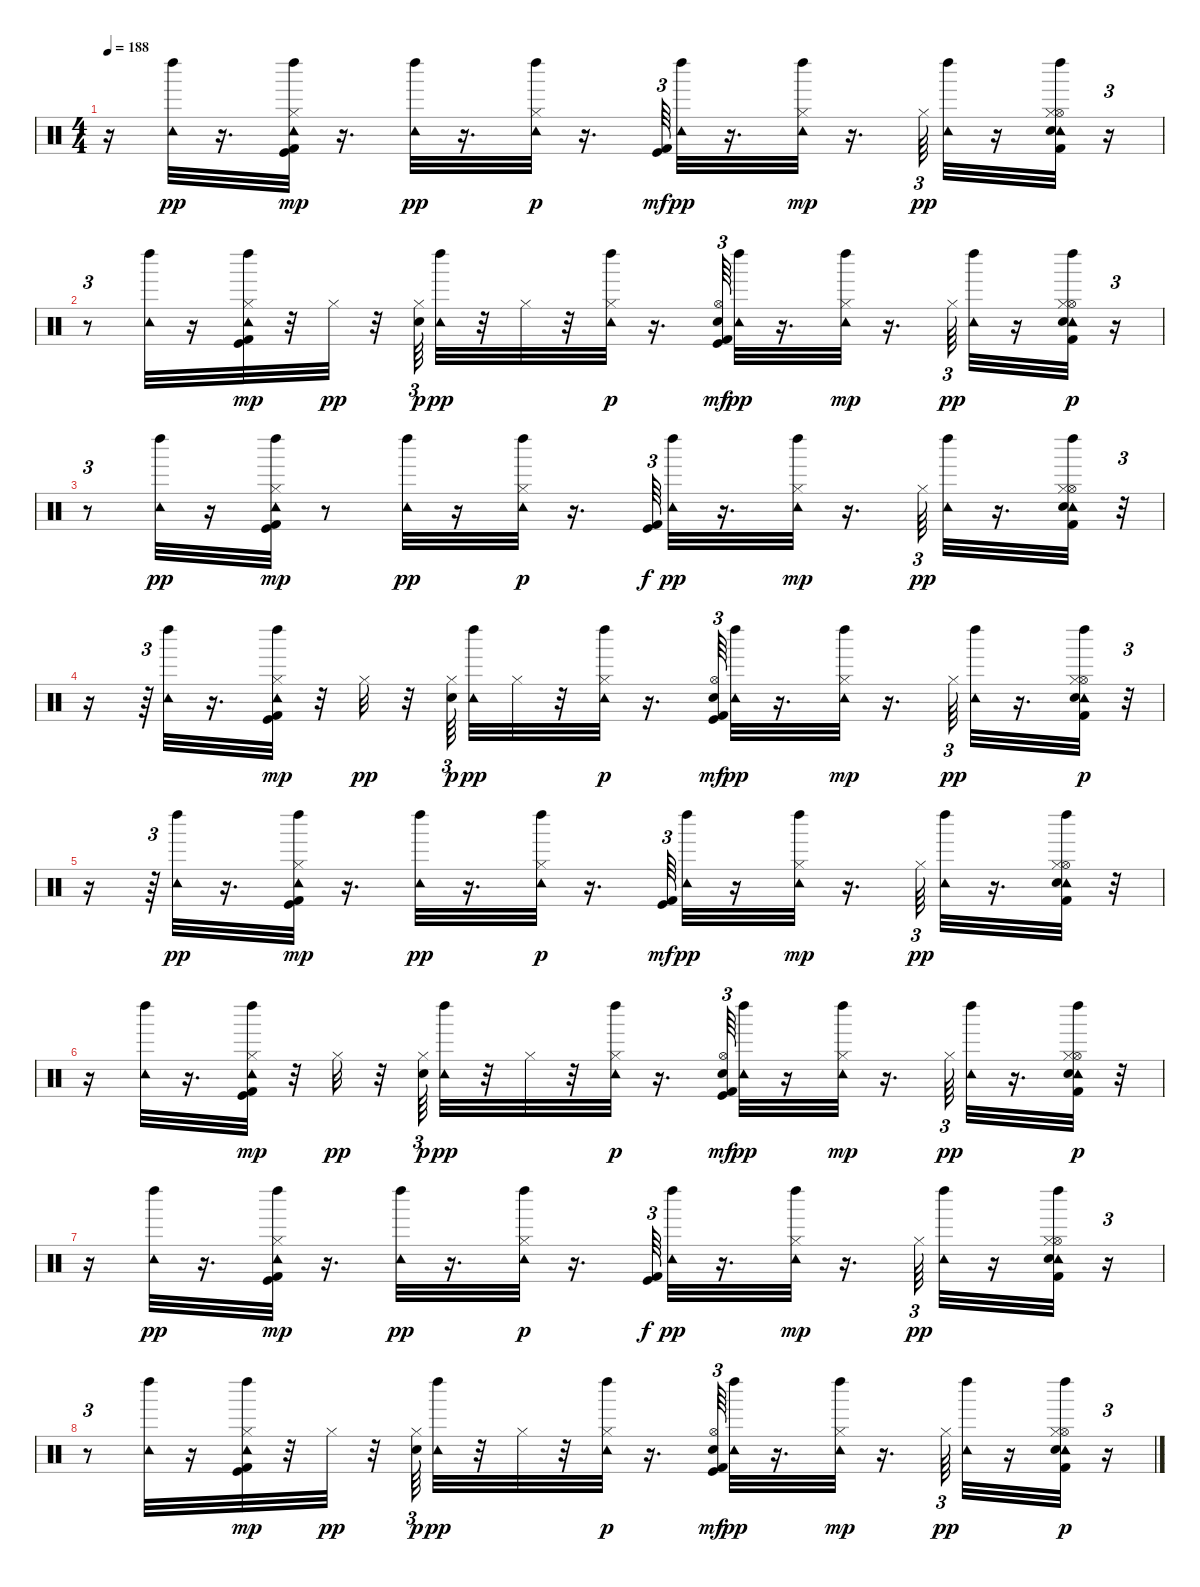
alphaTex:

\track "" {instrument percussion}
\staff {score}
\articulation defaults
\ts (4 4)
\tempo 188
\clef neutral
\ks c
r.16{dy p} ("Tambourine (hit)" "Left Maraca (hit)").32{dy pp} r.16{d} ("Kick (hit) 2" "Hi-Hat (closed)" "Tambourine (hit)" "Left Maraca (hit)" "Kick (hit)").32{dy mp} r.16{d} ("Tambourine (hit)" "Left Maraca (hit)").32{dy pp} r.16{d} ("Hi-Hat (closed)" "Tambourine (hit)" "Left Maraca (hit)").32{dy p} r.16{d} ("Kick (hit) 2" "Kick (hit)").64{tu (3 2) dy mf} ("Tambourine (hit)" "Left Maraca (hit)").32{dy pp} r.16{d} ("Hi-Hat (closed)" "Tambourine (hit)" "Left Maraca (hit)").32{dy mp} r.16{d} "Hi-Hat (closed)".64{tu (3 2) dy pp} ("Tambourine (hit)" "Left Maraca (hit)").32 r.16 ("Kick (hit) 2" "Hi-Hat (open)" "Tambourine (hit)" "Left Maraca (hit)" "Electric Snare (hit)" "Hi-Hat (closed)").32 r.16{tu (3 2)} |
r.8{tu (3 2)} ("Tambourine (hit)" "Left Maraca (hit)").32 r.16 ("Kick (hit) 2" "Hi-Hat (closed)" "Tambourine (hit)" "Left Maraca (hit)" "Kick (hit)").32{dy mp} r.32 "Hi-Hat (closed)".32{dy pp} r.32 ("Electric Snare (hit)" "Hi-Hat (closed)").64{tu (3 2) dy p} ("Tambourine (hit)" "Left Maraca (hit)").32{dy pp} r.32 "Hi-Hat (closed)".32 r.32 ("Hi-Hat (closed)" "Tambourine (hit)" "Left Maraca (hit)").32{dy p} r.16{d} ("Kick (hit) 2" "Hi-Hat (open)" "Electric Snare (hit)" "Kick (hit)").64{tu (3 2) dy mf} ("Tambourine (hit)" "Left Maraca (hit)").32{dy pp} r.16{d} ("Hi-Hat (closed)" "Tambourine (hit)" "Left Maraca (hit)").32{dy mp} r.16{d} "Hi-Hat (closed)".64{tu (3 2) dy pp} ("Tambourine (hit)" "Left Maraca (hit)").32 r.16 ("Kick (hit) 2" "Hi-Hat (open)" "Tambourine (hit)" "Left Maraca (hit)" "Electric Snare (hit)" "Hi-Hat (closed)").32{dy p} r.16{tu (3 2)} |
r.8{tu (3 2)} ("Tambourine (hit)" "Left Maraca (hit)").32{dy pp} r.16 ("Kick (hit) 2" "Hi-Hat (closed)" "Tambourine (hit)" "Left Maraca (hit)" "Kick (hit)").32{dy mp} r.8 ("Tambourine (hit)" "Left Maraca (hit)").32{dy pp} r.16 ("Hi-Hat (closed)" "Tambourine (hit)" "Left Maraca (hit)").32{dy p} r.16{d} ("Kick (hit) 2" "Kick (hit)").64{tu (3 2) dy f} ("Tambourine (hit)" "Left Maraca (hit)").32{dy pp} r.16{d} ("Hi-Hat (closed)" "Tambourine (hit)" "Left Maraca (hit)").32{dy mp} r.16{d} "Hi-Hat (closed)".64{tu (3 2) dy pp} ("Tambourine (hit)" "Left Maraca (hit)").32 r.16{d} ("Kick (hit) 2" "Hi-Hat (open)" "Tambourine (hit)" "Left Maraca (hit)" "Electric Snare (hit)" "Hi-Hat (closed)").32 r.32{tu (3 2)} |
r.16 r.64{tu (3 2)} ("Tambourine (hit)" "Left Maraca (hit)").32 r.16{d} ("Kick (hit) 2" "Hi-Hat (closed)" "Tambourine (hit)" "Left Maraca (hit)" "Kick (hit)").32{dy mp} r.32 "Hi-Hat (closed)".32{dy pp} r.32 ("Electric Snare (hit)" "Hi-Hat (closed)").64{tu (3 2) dy p beam splitsecondary} ("Tambourine (hit)" "Left Maraca (hit)").32{dy pp} "Hi-Hat (closed)".32 r.32 ("Hi-Hat (closed)" "Tambourine (hit)" "Left Maraca (hit)").32{dy p} r.16{d} ("Kick (hit) 2" "Hi-Hat (open)" "Electric Snare (hit)" "Kick (hit)").64{tu (3 2) dy mf} ("Tambourine (hit)" "Left Maraca (hit)").32{dy pp} r.16{d} ("Hi-Hat (closed)" "Tambourine (hit)" "Left Maraca (hit)").32{dy mp} r.16{d} "Hi-Hat (closed)".64{tu (3 2) dy pp} ("Tambourine (hit)" "Left Maraca (hit)").32 r.16{d} ("Kick (hit) 2" "Hi-Hat (open)" "Tambourine (hit)" "Left Maraca (hit)" "Electric Snare (hit)" "Hi-Hat (closed)").32{dy p} r.32{tu (3 2)} |
r.16 r.64{tu (3 2)} ("Tambourine (hit)" "Left Maraca (hit)").32{dy pp} r.16{d} ("Kick (hit) 2" "Hi-Hat (closed)" "Tambourine (hit)" "Left Maraca (hit)" "Kick (hit)").32{dy mp} r.16{d} ("Tambourine (hit)" "Left Maraca (hit)").32{dy pp} r.16{d} ("Hi-Hat (closed)" "Tambourine (hit)" "Left Maraca (hit)").32{dy p} r.16{d} ("Kick (hit) 2" "Kick (hit)").64{tu (3 2) dy mf} ("Tambourine (hit)" "Left Maraca (hit)").32{dy pp} r.16 ("Hi-Hat (closed)" "Tambourine (hit)" "Left Maraca (hit)").32{dy mp} r.16{d} "Hi-Hat (closed)".64{tu (3 2) dy pp} ("Tambourine (hit)" "Left Maraca (hit)").32 r.16{d} ("Kick (hit) 2" "Hi-Hat (open)" "Tambourine (hit)" "Left Maraca (hit)" "Electric Snare (hit)" "Hi-Hat (closed)").32 r.32 |
r.16 ("Tambourine (hit)" "Left Maraca (hit)").32 r.16{d} ("Kick (hit) 2" "Hi-Hat (closed)" "Tambourine (hit)" "Left Maraca (hit)" "Kick (hit)").32{dy mp} r.32 "Hi-Hat (closed)".32{dy pp} r.32 ("Electric Snare (hit)" "Hi-Hat (closed)").64{tu (3 2) dy p} ("Tambourine (hit)" "Left Maraca (hit)").32{dy pp} r.32 "Hi-Hat (closed)".32 r.32 ("Hi-Hat (closed)" "Tambourine (hit)" "Left Maraca (hit)").32{dy p} r.16{d} ("Kick (hit) 2" "Hi-Hat (open)" "Electric Snare (hit)" "Kick (hit)").64{tu (3 2) dy mf} ("Tambourine (hit)" "Left Maraca (hit)").32{dy pp} r.16 ("Hi-Hat (closed)" "Tambourine (hit)" "Left Maraca (hit)").32{dy mp} r.16{d} "Hi-Hat (closed)".64{tu (3 2) dy pp} ("Tambourine (hit)" "Left Maraca (hit)").32 r.16{d} ("Kick (hit) 2" "Hi-Hat (open)" "Tambourine (hit)" "Left Maraca (hit)" "Electric Snare (hit)" "Hi-Hat (closed)").32{dy p} r.32 |
r.16 ("Tambourine (hit)" "Left Maraca (hit)").32{dy pp} r.16{d} ("Kick (hit) 2" "Hi-Hat (closed)" "Tambourine (hit)" "Left Maraca (hit)" "Kick (hit)").32{dy mp} r.16{d} ("Tambourine (hit)" "Left Maraca (hit)").32{dy pp} r.16{d} ("Hi-Hat (closed)" "Tambourine (hit)" "Left Maraca (hit)").32{dy p} r.16{d} ("Kick (hit) 2" "Kick (hit)").64{tu (3 2) dy f} ("Tambourine (hit)" "Left Maraca (hit)").32{dy pp} r.16{d} ("Hi-Hat (closed)" "Tambourine (hit)" "Left Maraca (hit)").32{dy mp} r.16{d} "Hi-Hat (closed)".64{tu (3 2) dy pp} ("Tambourine (hit)" "Left Maraca (hit)").32 r.16 ("Kick (hit) 2" "Hi-Hat (open)" "Tambourine (hit)" "Left Maraca (hit)" "Electric Snare (hit)" "Hi-Hat (closed)").32 r.16{tu (3 2)} |
r.8{tu (3 2)} ("Tambourine (hit)" "Left Maraca (hit)").32 r.16 ("Kick (hit) 2" "Hi-Hat (closed)" "Tambourine (hit)" "Left Maraca (hit)" "Kick (hit)").32{dy mp} r.32 "Hi-Hat (closed)".32{dy pp} r.32 ("Electric Snare (hit)" "Hi-Hat (closed)").64{tu (3 2) dy p} ("Tambourine (hit)" "Left Maraca (hit)").32{dy pp} r.32 "Hi-Hat (closed)".32 r.32 ("Hi-Hat (closed)" "Tambourine (hit)" "Left Maraca (hit)").32{dy p} r.16{d} ("Kick (hit) 2" "Hi-Hat (open)" "Electric Snare (hit)" "Kick (hit)").64{tu (3 2) dy mf} ("Tambourine (hit)" "Left Maraca (hit)").32{dy pp} r.16{d} ("Hi-Hat (closed)" "Tambourine (hit)" "Left Maraca (hit)").32{dy mp} r.16{d} "Hi-Hat (closed)".64{tu (3 2) dy pp} ("Tambourine (hit)" "Left Maraca (hit)").32 r.16 ("Kick (hit) 2" "Hi-Hat (open)" "Tambourine (hit)" "Left Maraca (hit)" "Electric Snare (hit)" "Hi-Hat (closed)").32{dy p} r.16{tu (3 2)}
